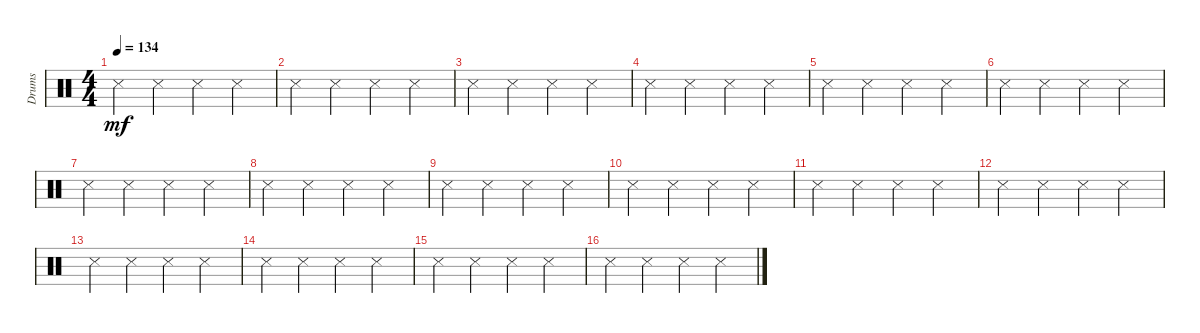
\track ("Drums" "Drums") {instrument percussion}
\staff {score}
\articulation defaults
\ts (4 4)
\tempo 134
\clef neutral
\ks c "Snare (side stick) 3".4{dy mf} "Snare (side stick) 3".4 "Snare (side stick) 3".4 "Snare (side stick) 3".4
|
"Snare (side stick) 3".4 "Snare (side stick) 3".4 "Snare (side stick) 3".4 "Snare (side stick) 3".4 |
"Snare (side stick) 3".4 "Snare (side stick) 3".4 "Snare (side stick) 3".4 "Snare (side stick) 3".4 |
"Snare (side stick) 3".4 "Snare (side stick) 3".4 "Snare (side stick) 3".4 "Snare (side stick) 3".4 |
"Snare (side stick) 3".4 "Snare (side stick) 3".4 "Snare (side stick) 3".4 "Snare (side stick) 3".4 |
"Snare (side stick) 3".4 "Snare (side stick) 3".4 "Snare (side stick) 3".4 "Snare (side stick) 3".4 |
"Snare (side stick) 3".4 "Snare (side stick) 3".4 "Snare (side stick) 3".4 "Snare (side stick) 3".4 |
"Snare (side stick) 3".4 "Snare (side stick) 3".4 "Snare (side stick) 3".4 "Snare (side stick) 3".4 |
"Snare (side stick) 3".4 "Snare (side stick) 3".4 "Snare (side stick) 3".4 "Snare (side stick) 3".4 |
"Snare (side stick) 3".4 "Snare (side stick) 3".4 "Snare (side stick) 3".4 "Snare (side stick) 3".4 |
"Snare (side stick) 3".4 "Snare (side stick) 3".4 "Snare (side stick) 3".4 "Snare (side stick) 3".4 |
"Snare (side stick) 3".4 "Snare (side stick) 3".4 "Snare (side stick) 3".4 "Snare (side stick) 3".4 |
"Snare (side stick) 3".4 "Snare (side stick) 3".4 "Snare (side stick) 3".4 "Snare (side stick) 3".4 |
"Snare (side stick) 3".4 "Snare (side stick) 3".4 "Snare (side stick) 3".4 "Snare (side stick) 3".4 |
"Snare (side stick) 3".4 "Snare (side stick) 3".4 "Snare (side stick) 3".4 "Snare (side stick) 3".4 |
"Snare (side stick) 3".4 "Snare (side stick) 3".4 "Snare (side stick) 3".4 "Snare (side stick) 3".4
